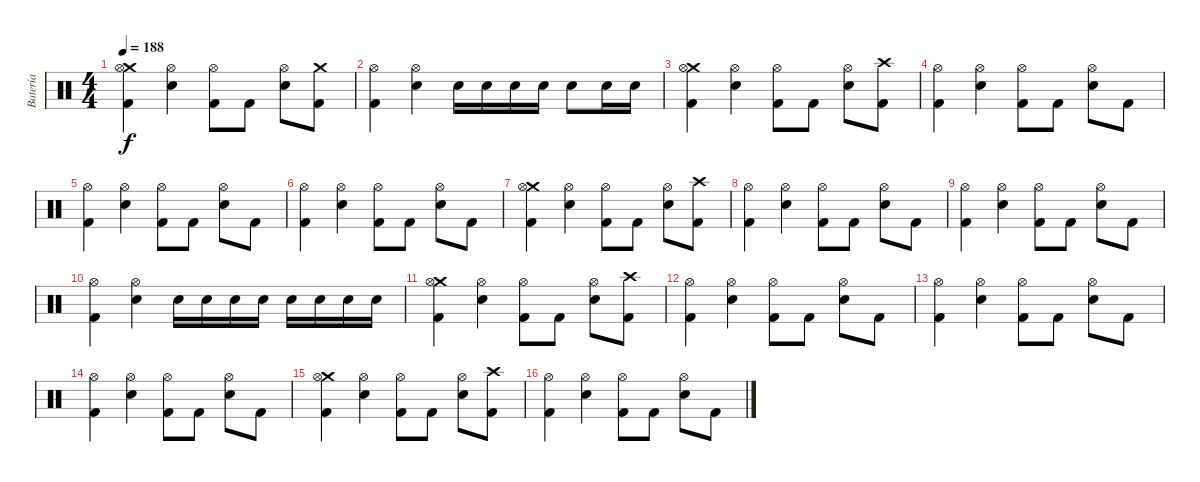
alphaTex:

\track ("Batería" "Batería") {instrument percussion}
\staff {score}
\articulation defaults
\ts (4 4)
\tempo 188
\clef neutral
\ks c
("Crash medium (hit)" "Hi-Hat (open)" "Kick (hit) 2").4{dy f} ("Hi-Hat (open)" "Electric Snare (hit)").4 ("Hi-Hat (open)" "Kick (hit) 2").8 "Kick (hit) 2".8 ("Hi-Hat (open)" "Electric Snare (hit)").8 ("Crash medium (hit)" "Kick (hit) 2").8 |
("Hi-Hat (open)" "Kick (hit) 2").4 ("Hi-Hat (open)" "Electric Snare (hit)").4 "Electric Snare (hit)".16 "Electric Snare (hit)".16 "Electric Snare (hit)".16 "Electric Snare (hit)".16 "Electric Snare (hit)".8 "Electric Snare (hit)".16 "Electric Snare (hit)".16 |
("Crash medium (hit)" "Hi-Hat (open)" "Kick (hit) 2").4 ("Hi-Hat (open)" "Electric Snare (hit)").4 ("Hi-Hat (open)" "Kick (hit) 2").8 "Kick (hit) 2".8 ("Hi-Hat (open)" "Electric Snare (hit)").8 ("Crash high (hit)" "Kick (hit) 2").8 |
("Hi-Hat (open)" "Kick (hit) 2").4 ("Hi-Hat (open)" "Electric Snare (hit)").4 ("Hi-Hat (open)" "Kick (hit) 2").8 "Kick (hit) 2".8 ("Hi-Hat (open)" "Electric Snare (hit)").8 "Kick (hit) 2".8 |
("Hi-Hat (open)" "Kick (hit) 2").4 ("Hi-Hat (open)" "Electric Snare (hit)").4 ("Hi-Hat (open)" "Kick (hit) 2").8 "Kick (hit) 2".8 ("Hi-Hat (open)" "Electric Snare (hit)").8 "Kick (hit) 2".8 |
("Hi-Hat (open)" "Kick (hit) 2").4 ("Hi-Hat (open)" "Electric Snare (hit)").4 ("Hi-Hat (open)" "Kick (hit) 2").8 "Kick (hit) 2".8 ("Hi-Hat (open)" "Electric Snare (hit)").8 "Kick (hit) 2".8 |
("Crash medium (hit)" "Hi-Hat (open)" "Kick (hit) 2").4 ("Hi-Hat (open)" "Electric Snare (hit)").4 ("Hi-Hat (open)" "Kick (hit) 2").8 "Kick (hit) 2".8 ("Hi-Hat (open)" "Electric Snare (hit)").8 ("Crash high (hit)" "Kick (hit) 2").8 |
("Hi-Hat (open)" "Kick (hit) 2").4 ("Hi-Hat (open)" "Electric Snare (hit)").4 ("Hi-Hat (open)" "Kick (hit) 2").8 "Kick (hit) 2".8 ("Hi-Hat (open)" "Electric Snare (hit)").8 "Kick (hit) 2".8 |
("Hi-Hat (open)" "Kick (hit) 2").4 ("Hi-Hat (open)" "Electric Snare (hit)").4 ("Hi-Hat (open)" "Kick (hit) 2").8 "Kick (hit) 2".8 ("Hi-Hat (open)" "Electric Snare (hit)").8 "Kick (hit) 2".8 |
("Hi-Hat (open)" "Kick (hit) 2").4 ("Hi-Hat (open)" "Electric Snare (hit)").4 "Electric Snare (hit)".16 "Electric Snare (hit)".16 "Electric Snare (hit)".16 "Electric Snare (hit)".16 "Electric Snare (hit)".16 "Electric Snare (hit)".16 "Electric Snare (hit)".16 "Electric Snare (hit)".16 |
("Crash medium (hit)" "Hi-Hat (open)" "Kick (hit) 2").4 ("Hi-Hat (open)" "Electric Snare (hit)").4 ("Hi-Hat (open)" "Kick (hit) 2").8 "Kick (hit) 2".8 ("Hi-Hat (open)" "Electric Snare (hit)").8 ("Crash high (hit)" "Kick (hit) 2").8 |
("Hi-Hat (open)" "Kick (hit) 2").4 ("Hi-Hat (open)" "Electric Snare (hit)").4 ("Hi-Hat (open)" "Kick (hit) 2").8 "Kick (hit) 2".8 ("Hi-Hat (open)" "Electric Snare (hit)").8 "Kick (hit) 2".8 |
("Hi-Hat (open)" "Kick (hit) 2").4 ("Hi-Hat (open)" "Electric Snare (hit)").4 ("Hi-Hat (open)" "Kick (hit) 2").8 "Kick (hit) 2".8 ("Hi-Hat (open)" "Electric Snare (hit)").8 "Kick (hit) 2".8 |
("Hi-Hat (open)" "Kick (hit) 2").4 ("Hi-Hat (open)" "Electric Snare (hit)").4 ("Hi-Hat (open)" "Kick (hit) 2").8 "Kick (hit) 2".8 ("Hi-Hat (open)" "Electric Snare (hit)").8 "Kick (hit) 2".8 |
("Crash medium (hit)" "Hi-Hat (open)" "Kick (hit) 2").4 ("Hi-Hat (open)" "Electric Snare (hit)").4 ("Hi-Hat (open)" "Kick (hit) 2").8 "Kick (hit) 2".8 ("Hi-Hat (open)" "Electric Snare (hit)").8 ("Crash high (hit)" "Kick (hit) 2").8 |
("Hi-Hat (open)" "Kick (hit) 2").4 ("Hi-Hat (open)" "Electric Snare (hit)").4 ("Hi-Hat (open)" "Kick (hit) 2").8 "Kick (hit) 2".8 ("Hi-Hat (open)" "Electric Snare (hit)").8 "Kick (hit) 2".8
